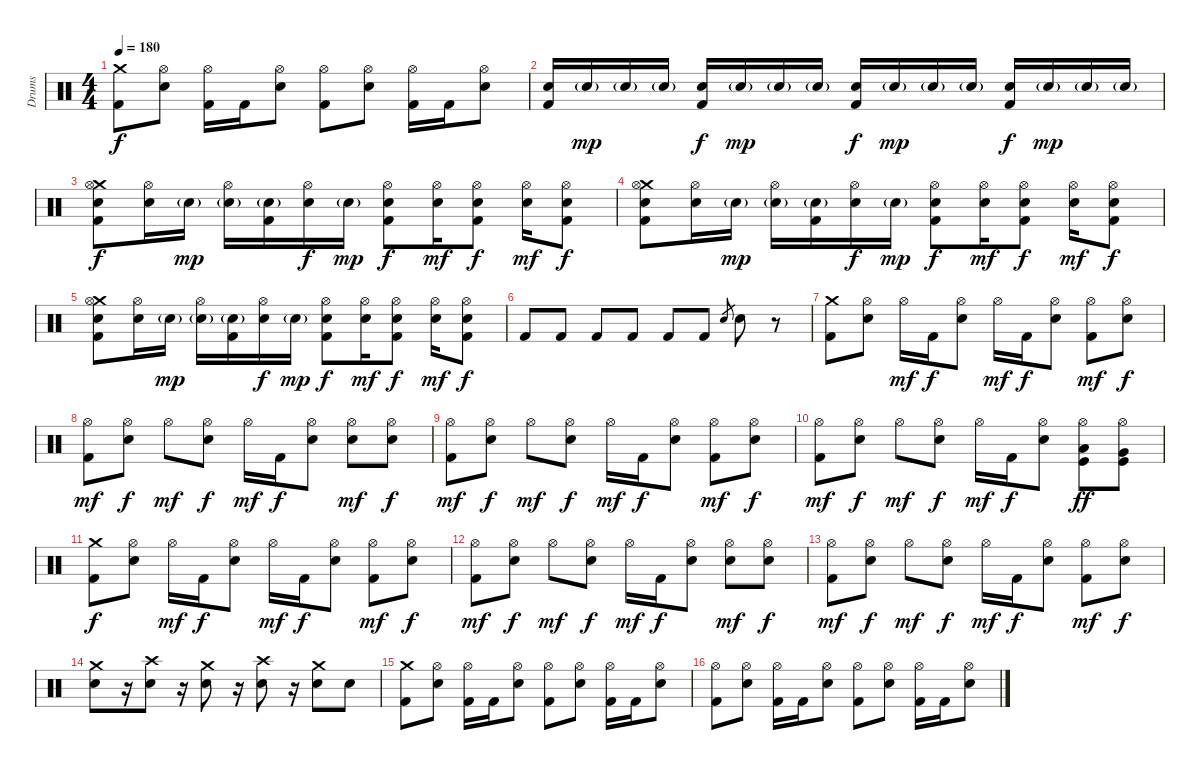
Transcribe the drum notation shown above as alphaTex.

\track ("Drums" "Drums") {instrument percussion}
\staff {score}
\articulation defaults
\ts (4 4)
\tempo 180
\clef neutral
\ks c
("Crash medium (hit)" "Kick (hit) 2").8{dy f} ("Hi-Hat (open)" "Electric Snare (hit)").8 ("Hi-Hat (open)" "Kick (hit) 2").16 "Kick (hit) 2".16 ("Hi-Hat (open)" "Electric Snare (hit)").8 ("Hi-Hat (open)" "Kick (hit) 2").8 ("Hi-Hat (open)" "Electric Snare (hit)").8 ("Hi-Hat (open)" "Kick (hit) 2").16 "Kick (hit) 2".16 ("Hi-Hat (open)" "Electric Snare (hit)").8 |
("Electric Snare (hit)" "Kick (hit) 2").16 "Electric Snare (hit)"{g}.16{dy mp} "Electric Snare (hit)"{g}.16 "Electric Snare (hit)"{g}.16 ("Electric Snare (hit)" "Kick (hit) 2").16{dy f} "Electric Snare (hit)"{g}.16{dy mp} "Electric Snare (hit)"{g}.16 "Electric Snare (hit)"{g}.16 ("Electric Snare (hit)" "Kick (hit) 2").16{dy f} "Electric Snare (hit)"{g}.16{dy mp} "Electric Snare (hit)"{g}.16 "Electric Snare (hit)"{g}.16 ("Electric Snare (hit)" "Kick (hit) 2").16{dy f} "Electric Snare (hit)"{g}.16{dy mp} "Electric Snare (hit)"{g}.16 "Electric Snare (hit)"{g}.16 |
("Crash medium (hit)" "Hi-Hat (open)" "Electric Snare (hit)" "Kick (hit) 2").8{dy f} ("Hi-Hat (open)" "Electric Snare (hit)").16 "Electric Snare (hit)"{g}.16{dy mp} ("Hi-Hat (open)" "Electric Snare (hit)"{g}).16 ("Electric Snare (hit)"{g} "Kick (hit) 2").16 ("Hi-Hat (open)" "Electric Snare (hit)").16{dy f} "Electric Snare (hit)"{g}.16{dy mp} ("Hi-Hat (open)" "Electric Snare (hit)" "Kick (hit) 2").8{dy f} ("Hi-Hat (open)" "Electric Snare (hit)").16{dy mf} ("Hi-Hat (open)" "Electric Snare (hit)" "Kick (hit) 2").8{dy f} ("Hi-Hat (open)" "Electric Snare (hit)").16{dy mf} ("Hi-Hat (open)" "Electric Snare (hit)" "Kick (hit) 2").8{dy f} |
("Crash medium (hit)" "Hi-Hat (open)" "Electric Snare (hit)" "Kick (hit) 2").8 ("Hi-Hat (open)" "Electric Snare (hit)").16 "Electric Snare (hit)"{g}.16{dy mp} ("Hi-Hat (open)" "Electric Snare (hit)"{g}).16 ("Electric Snare (hit)"{g} "Kick (hit) 2").16 ("Hi-Hat (open)" "Electric Snare (hit)").16{dy f} "Electric Snare (hit)"{g}.16{dy mp} ("Hi-Hat (open)" "Electric Snare (hit)" "Kick (hit) 2").8{dy f} ("Hi-Hat (open)" "Electric Snare (hit)").16{dy mf} ("Hi-Hat (open)" "Electric Snare (hit)" "Kick (hit) 2").8{dy f} ("Hi-Hat (open)" "Electric Snare (hit)").16{dy mf} ("Hi-Hat (open)" "Electric Snare (hit)" "Kick (hit) 2").8{dy f} |
("Crash medium (hit)" "Hi-Hat (open)" "Electric Snare (hit)" "Kick (hit) 2").8 ("Hi-Hat (open)" "Electric Snare (hit)").16 "Electric Snare (hit)"{g}.16{dy mp} ("Hi-Hat (open)" "Electric Snare (hit)"{g}).16 ("Electric Snare (hit)"{g} "Kick (hit) 2").16 ("Hi-Hat (open)" "Electric Snare (hit)").16{dy f} "Electric Snare (hit)"{g}.16{dy mp} ("Hi-Hat (open)" "Electric Snare (hit)" "Kick (hit) 2").8{dy f} ("Hi-Hat (open)" "Electric Snare (hit)").16{dy mf} ("Hi-Hat (open)" "Electric Snare (hit)" "Kick (hit) 2").8{dy f} ("Hi-Hat (open)" "Electric Snare (hit)").16{dy mf} ("Hi-Hat (open)" "Electric Snare (hit)" "Kick (hit) 2").8{dy f} |
"Kick (hit) 2".8 "Kick (hit) 2".8 "Kick (hit) 2".8 "Kick (hit) 2".8 "Kick (hit) 2".8 "Kick (hit) 2".8 "Electric Snare (hit)".8{gr} "Electric Snare (hit)".8 r.8 |
("Crash medium (hit)" "Kick (hit) 2").8 ("Hi-Hat (open)" "Electric Snare (hit)").8 "Hi-Hat (open)".16{dy mf} "Kick (hit) 2".16{dy f} ("Hi-Hat (open)" "Electric Snare (hit)").8 "Hi-Hat (open)".16{dy mf} "Kick (hit) 2".16{dy f} ("Hi-Hat (open)" "Electric Snare (hit)").8 ("Hi-Hat (open)" "Kick (hit) 2").8{dy mf} ("Hi-Hat (open)" "Electric Snare (hit)").8{dy f} |
("Hi-Hat (open)" "Kick (hit) 2").8{dy mf} ("Hi-Hat (open)" "Electric Snare (hit)").8{dy f} "Hi-Hat (open)".8{dy mf} ("Hi-Hat (open)" "Electric Snare (hit)").8{dy f} "Hi-Hat (open)".16{dy mf} "Kick (hit) 2".16{dy f} ("Hi-Hat (open)" "Electric Snare (hit)").8 ("Hi-Hat (open)" "Electric Snare (hit)").8{dy mf} ("Hi-Hat (open)" "Electric Snare (hit)").8{dy f} |
("Hi-Hat (open)" "Kick (hit) 2").8{dy mf} ("Hi-Hat (open)" "Electric Snare (hit)").8{dy f} "Hi-Hat (open)".8{dy mf} ("Hi-Hat (open)" "Electric Snare (hit)").8{dy f} "Hi-Hat (open)".16{dy mf} "Kick (hit) 2".16{dy f} ("Hi-Hat (open)" "Electric Snare (hit)").8 ("Hi-Hat (open)" "Kick (hit) 2").8{dy mf} ("Hi-Hat (open)" "Electric Snare (hit)").8{dy f} |
("Hi-Hat (open)" "Kick (hit) 2").8{dy mf} ("Hi-Hat (open)" "Electric Snare (hit)").8{dy f} "Hi-Hat (open)".8{dy mf} ("Hi-Hat (open)" "Electric Snare (hit)").8{dy f} "Hi-Hat (open)".16{dy mf} "Kick (hit) 2".16{dy f} ("Hi-Hat (open)" "Electric Snare (hit)").8 ("Hi-Hat (open)" "Low Tom (hit)" "Kick (hit)").8{dy ff} ("Hi-Hat (open)" "Very Low Tom (hit)" "Kick (hit)").8 |
("Crash medium (hit)" "Kick (hit) 2").8{dy f} ("Hi-Hat (open)" "Electric Snare (hit)").8 "Hi-Hat (open)".16{dy mf} "Kick (hit) 2".16{dy f} ("Hi-Hat (open)" "Electric Snare (hit)").8 "Hi-Hat (open)".16{dy mf} "Kick (hit) 2".16{dy f} ("Hi-Hat (open)" "Electric Snare (hit)").8 ("Hi-Hat (open)" "Kick (hit) 2").8{dy mf} ("Hi-Hat (open)" "Electric Snare (hit)").8{dy f} |
("Hi-Hat (open)" "Kick (hit) 2").8{dy mf} ("Hi-Hat (open)" "Electric Snare (hit)").8{dy f} "Hi-Hat (open)".8{dy mf} ("Hi-Hat (open)" "Electric Snare (hit)").8{dy f} "Hi-Hat (open)".16{dy mf} "Kick (hit) 2".16{dy f} ("Hi-Hat (open)" "Electric Snare (hit)").8 ("Hi-Hat (open)" "Electric Snare (hit)").8{dy mf} ("Hi-Hat (open)" "Electric Snare (hit)").8{dy f} |
("Hi-Hat (open)" "Kick (hit) 2").8{dy mf} ("Hi-Hat (open)" "Electric Snare (hit)").8{dy f} "Hi-Hat (open)".8{dy mf} ("Hi-Hat (open)" "Electric Snare (hit)").8{dy f} "Hi-Hat (open)".16{dy mf} "Kick (hit) 2".16{dy f} ("Hi-Hat (open)" "Electric Snare (hit)").8 ("Hi-Hat (open)" "Kick (hit) 2").8{dy mf} ("Hi-Hat (open)" "Electric Snare (hit)").8{dy f} |
("Crash medium (hit)" "Electric Snare (hit)").8 r.16 ("Crash high (hit)" "Electric Snare (hit)").8 r.16 ("Crash medium (hit)" "Electric Snare (hit)").8 r.16 ("Crash high (hit)" "Electric Snare (hit)").8 r.16 ("Crash medium (hit)" "Electric Snare (hit)").8 "Electric Snare (hit)".8 |
("Crash medium (hit)" "Kick (hit) 2").8 ("Hi-Hat (open)" "Electric Snare (hit)").8 ("Hi-Hat (open)" "Kick (hit) 2").16 "Kick (hit) 2".16 ("Hi-Hat (open)" "Electric Snare (hit)").8 ("Hi-Hat (open)" "Kick (hit) 2").8 ("Hi-Hat (open)" "Electric Snare (hit)").8 ("Hi-Hat (open)" "Kick (hit) 2").16 "Kick (hit) 2".16 ("Hi-Hat (open)" "Electric Snare (hit)").8 |
("Hi-Hat (open)" "Kick (hit) 2").8 ("Hi-Hat (open)" "Electric Snare (hit)").8 ("Hi-Hat (open)" "Kick (hit) 2").16 "Kick (hit) 2".16 ("Hi-Hat (open)" "Electric Snare (hit)").8 ("Hi-Hat (open)" "Kick (hit) 2").8 ("Hi-Hat (open)" "Electric Snare (hit)").8 ("Hi-Hat (open)" "Kick (hit) 2").16 "Kick (hit) 2".16 ("Hi-Hat (open)" "Electric Snare (hit)").8
